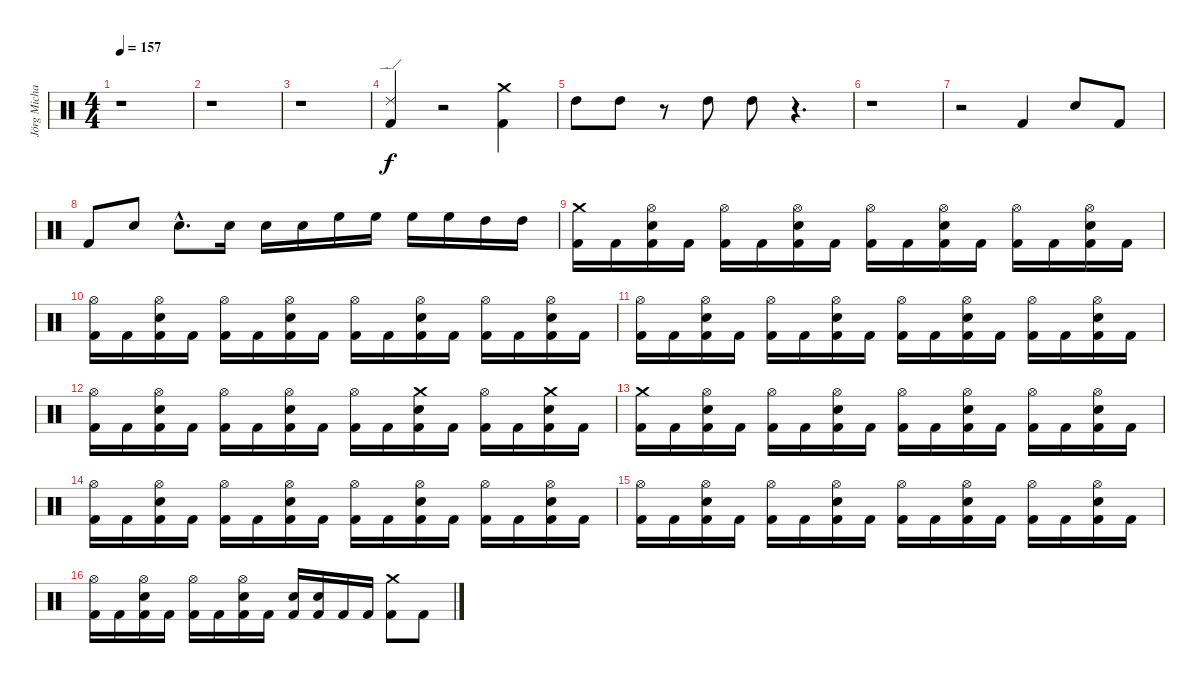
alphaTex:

\track ("Jörg Michael" "Jörg Micha") {instrument percussion}
\staff {score}
\articulation defaults
\ts (4 4)
\tempo 157
\clef neutral
\ks c
r.1{dy f} |
r.1 |
r.1 |
("Ride (edge) 2" "Kick (hit) 2").4 r.2 ("Kick (hit) 2" "Crash medium (hit)").4 |
"High Tom (hit)".8 "High Tom (hit)".8 r.8 "High Tom (hit)".8 "High Tom (hit)".8 r.4{d} |
r.1 |
r.2 "Kick (hit) 2".4 "Snare (hit) 2".8 "Kick (hit) 2".8 |
"Kick (hit) 2".8 "Snare (hit) 2".8 "Snare (hit) 2"{hac}.8{d} "Snare (hit) 2".16 "Snare (hit) 2".16 "Snare (hit) 2".16 "High Floor Tom (hit)".16 "High Floor Tom (hit)".16 "High Floor Tom (hit)".16 "High Floor Tom (hit)".16 "High Tom (hit)".16 "High Tom (hit)".16 |
("Kick (hit) 2" "Crash medium (hit)").16 "Kick (hit) 2".16 ("Kick (hit) 2" "Snare (hit) 2" "Hi-Hat (open)").16 "Kick (hit) 2".16 ("Kick (hit) 2" "Hi-Hat (open)").16 "Kick (hit) 2".16 ("Kick (hit) 2" "Snare (hit) 2" "Hi-Hat (open)").16 "Kick (hit) 2".16 ("Kick (hit) 2" "Hi-Hat (open)").16 "Kick (hit) 2".16 ("Kick (hit) 2" "Snare (hit) 2" "Hi-Hat (open)").16 "Kick (hit) 2".16 ("Kick (hit) 2" "Hi-Hat (open)").16 "Kick (hit) 2".16 ("Kick (hit) 2" "Snare (hit) 2" "Hi-Hat (open)").16 "Kick (hit) 2".16 |
("Hi-Hat (open)" "Kick (hit) 2").16 "Kick (hit) 2".16 ("Kick (hit) 2" "Snare (hit) 2" "Hi-Hat (open)").16 "Kick (hit) 2".16 ("Kick (hit) 2" "Hi-Hat (open)").16 "Kick (hit) 2".16 ("Kick (hit) 2" "Snare (hit) 2" "Hi-Hat (open)").16 "Kick (hit) 2".16 ("Kick (hit) 2" "Hi-Hat (open)").16 "Kick (hit) 2".16 ("Kick (hit) 2" "Snare (hit) 2" "Hi-Hat (open)").16 "Kick (hit) 2".16 ("Kick (hit) 2" "Hi-Hat (open)").16 "Kick (hit) 2".16 ("Kick (hit) 2" "Snare (hit) 2" "Hi-Hat (open)").16 "Kick (hit) 2".16 |
("Hi-Hat (open)" "Kick (hit) 2").16 "Kick (hit) 2".16 ("Kick (hit) 2" "Snare (hit) 2" "Hi-Hat (open)").16 "Kick (hit) 2".16 ("Kick (hit) 2" "Hi-Hat (open)").16 "Kick (hit) 2".16 ("Kick (hit) 2" "Snare (hit) 2" "Hi-Hat (open)").16 "Kick (hit) 2".16 ("Kick (hit) 2" "Hi-Hat (open)").16 "Kick (hit) 2".16 ("Kick (hit) 2" "Snare (hit) 2" "Hi-Hat (open)").16 "Kick (hit) 2".16 ("Kick (hit) 2" "Hi-Hat (open)").16 "Kick (hit) 2".16 ("Kick (hit) 2" "Snare (hit) 2" "Hi-Hat (open)").16 "Kick (hit) 2".16 |
("Hi-Hat (open)" "Kick (hit) 2").16 "Kick (hit) 2".16 ("Kick (hit) 2" "Snare (hit) 2" "Hi-Hat (open)").16 "Kick (hit) 2".16 ("Kick (hit) 2" "Hi-Hat (open)").16 "Kick (hit) 2".16 ("Kick (hit) 2" "Snare (hit) 2" "Hi-Hat (open)").16 "Kick (hit) 2".16 ("Kick (hit) 2" "Hi-Hat (open)").16 "Kick (hit) 2".16 ("Crash medium (hit)" "Kick (hit) 2" "Snare (hit) 2").16 "Kick (hit) 2".16 ("Kick (hit) 2" "Hi-Hat (open)").16 "Kick (hit) 2".16 ("Crash medium (hit)" "Kick (hit) 2" "Snare (hit) 2").16 "Kick (hit) 2".16 |
("Crash medium (hit)" "Kick (hit) 2").16 "Kick (hit) 2".16 ("Kick (hit) 2" "Snare (hit) 2" "Hi-Hat (open)").16 "Kick (hit) 2".16 ("Kick (hit) 2" "Hi-Hat (open)").16 "Kick (hit) 2".16 ("Kick (hit) 2" "Snare (hit) 2" "Hi-Hat (open)").16 "Kick (hit) 2".16 ("Kick (hit) 2" "Hi-Hat (open)").16 "Kick (hit) 2".16 ("Kick (hit) 2" "Snare (hit) 2" "Hi-Hat (open)").16 "Kick (hit) 2".16 ("Kick (hit) 2" "Hi-Hat (open)").16 "Kick (hit) 2".16 ("Kick (hit) 2" "Snare (hit) 2" "Hi-Hat (open)").16 "Kick (hit) 2".16 |
("Hi-Hat (open)" "Kick (hit) 2").16 "Kick (hit) 2".16 ("Kick (hit) 2" "Snare (hit) 2" "Hi-Hat (open)").16 "Kick (hit) 2".16 ("Kick (hit) 2" "Hi-Hat (open)").16 "Kick (hit) 2".16 ("Kick (hit) 2" "Snare (hit) 2" "Hi-Hat (open)").16 "Kick (hit) 2".16 ("Kick (hit) 2" "Hi-Hat (open)").16 "Kick (hit) 2".16 ("Kick (hit) 2" "Snare (hit) 2" "Hi-Hat (open)").16 "Kick (hit) 2".16 ("Kick (hit) 2" "Hi-Hat (open)").16 "Kick (hit) 2".16 ("Kick (hit) 2" "Snare (hit) 2" "Hi-Hat (open)").16 "Kick (hit) 2".16 |
("Hi-Hat (open)" "Kick (hit) 2").16 "Kick (hit) 2".16 ("Kick (hit) 2" "Snare (hit) 2" "Hi-Hat (open)").16 "Kick (hit) 2".16 ("Kick (hit) 2" "Hi-Hat (open)").16 "Kick (hit) 2".16 ("Kick (hit) 2" "Snare (hit) 2" "Hi-Hat (open)").16 "Kick (hit) 2".16 ("Kick (hit) 2" "Hi-Hat (open)").16 "Kick (hit) 2".16 ("Kick (hit) 2" "Snare (hit) 2" "Hi-Hat (open)").16 "Kick (hit) 2".16 ("Kick (hit) 2" "Hi-Hat (open)").16 "Kick (hit) 2".16 ("Kick (hit) 2" "Snare (hit) 2" "Hi-Hat (open)").16 "Kick (hit) 2".16 |
("Hi-Hat (open)" "Kick (hit) 2").16 "Kick (hit) 2".16 ("Kick (hit) 2" "Snare (hit) 2" "Hi-Hat (open)").16 "Kick (hit) 2".16 ("Kick (hit) 2" "Hi-Hat (open)").16 "Kick (hit) 2".16 ("Kick (hit) 2" "Snare (hit) 2" "Hi-Hat (open)").16 "Kick (hit) 2".16 ("Snare (hit) 2" "Kick (hit) 2").16 ("Snare (hit) 2" "Kick (hit) 2").16 "Kick (hit) 2".16 "Kick (hit) 2".16 ("Crash medium (hit)" "Kick (hit) 2").8 "Kick (hit) 2".8
